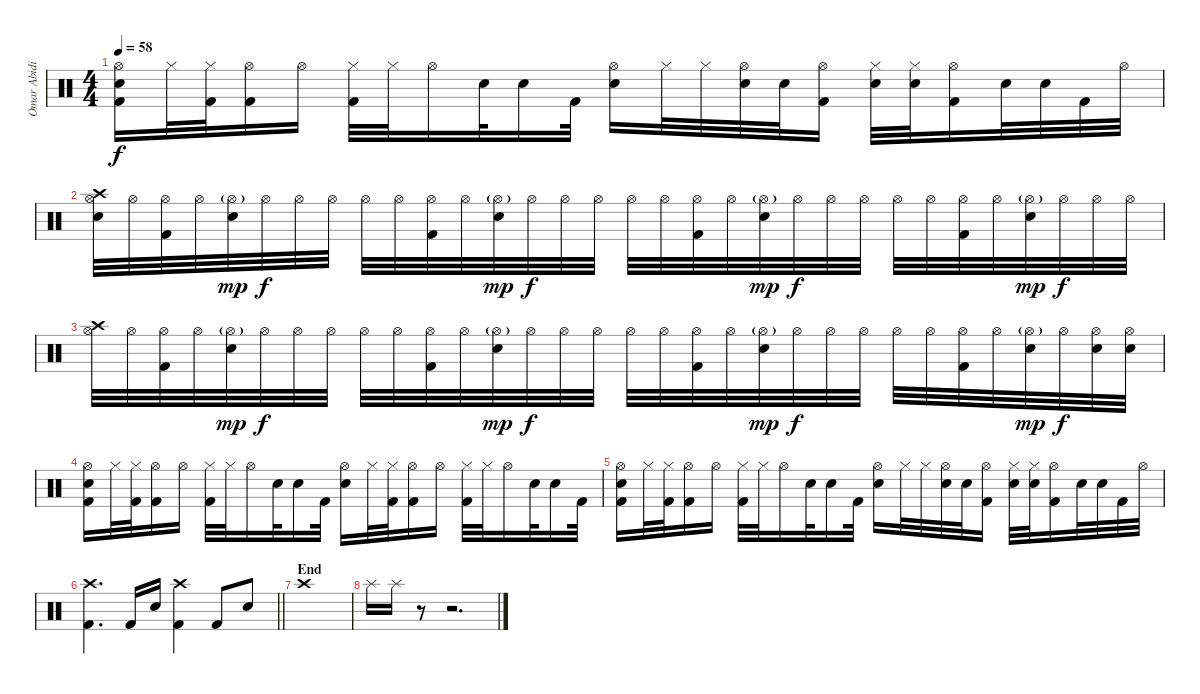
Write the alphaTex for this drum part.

\track ("Omar Abidi" "Omar Abidi") {instrument percussion}
\staff {score}
\articulation defaults
\ts (4 4)
\tempo 58
\clef neutral
\ks c
("Hi-Hat (open)" "Electric Snare (hit)" "Kick (hit) 2").16{dy f} "Hi-Hat (closed)".32 ("Hi-Hat (closed)" "Kick (hit) 2").32 ("Hi-Hat (open)" "Kick (hit) 2").16 "Hi-Hat (open)".16 ("Hi-Hat (closed)" "Kick (hit) 2").32 "Hi-Hat (closed)".32 "Hi-Hat (open)".16 "Electric Snare (hit)".32 "Electric Snare (hit)".16 "Kick (hit) 2".32 ("Hi-Hat (open)" "Electric Snare (hit)").16 "Hi-Hat (closed)".32 "Hi-Hat (closed)".32 ("Hi-Hat (open)" "Electric Snare (hit)").32 "Electric Snare (hit)".32 ("Hi-Hat (open)" "Kick (hit) 2").16 ("Hi-Hat (closed)" "Electric Snare (hit)").32 ("Hi-Hat (closed)" "Electric Snare (hit)").32 ("Hi-Hat (open)" "Kick (hit) 2").16 "Electric Snare (hit)".32 "Electric Snare (hit)".32 "Kick (hit) 2".32 "Hi-Hat (open)".32 |
("Crash high (hit)" "Electric Snare (hit)" "Hi-Hat (open)").32 "Hi-Hat (open)".32 ("Hi-Hat (open)" "Kick (hit) 2").32 "Hi-Hat (open)".32 ("Electric Snare (hit)" "Hi-Hat (open)"{g}).32{dy mp} "Hi-Hat (open)".32{dy f} "Hi-Hat (open)".32 "Hi-Hat (open)".32 "Hi-Hat (open)".32 "Hi-Hat (open)".32 ("Hi-Hat (open)" "Kick (hit) 2").32 "Hi-Hat (open)".32 ("Electric Snare (hit)" "Hi-Hat (open)"{g}).32{dy mp} "Hi-Hat (open)".32{dy f} "Hi-Hat (open)".32 "Hi-Hat (open)".32 "Hi-Hat (open)".32 "Hi-Hat (open)".32 ("Hi-Hat (open)" "Kick (hit) 2").32 "Hi-Hat (open)".32 ("Electric Snare (hit)" "Hi-Hat (open)"{g}).32{dy mp} "Hi-Hat (open)".32{dy f} "Hi-Hat (open)".32 "Hi-Hat (open)".32 "Hi-Hat (open)".32 "Hi-Hat (open)".32 ("Hi-Hat (open)" "Kick (hit) 2").32 "Hi-Hat (open)".32 ("Electric Snare (hit)" "Hi-Hat (open)"{g}).32{dy mp} "Hi-Hat (open)".32{dy f} "Hi-Hat (open)".32 "Hi-Hat (open)".32 |
("Crash high (hit)" "Hi-Hat (open)").32 "Hi-Hat (open)".32 ("Hi-Hat (open)" "Kick (hit) 2").32 "Hi-Hat (open)".32 ("Electric Snare (hit)" "Hi-Hat (open)"{g}).32{dy mp} "Hi-Hat (open)".32{dy f} "Hi-Hat (open)".32 "Hi-Hat (open)".32 "Hi-Hat (open)".32 "Hi-Hat (open)".32 ("Hi-Hat (open)" "Kick (hit) 2").32 "Hi-Hat (open)".32 ("Electric Snare (hit)" "Hi-Hat (open)"{g}).32{dy mp} "Hi-Hat (open)".32{dy f} "Hi-Hat (open)".32 "Hi-Hat (open)".32 "Hi-Hat (open)".32 "Hi-Hat (open)".32 ("Hi-Hat (open)" "Kick (hit) 2").32 "Hi-Hat (open)".32 ("Electric Snare (hit)" "Hi-Hat (open)"{g}).32{dy mp} "Hi-Hat (open)".32{dy f} "Hi-Hat (open)".32 "Hi-Hat (open)".32 "Hi-Hat (open)".32 "Hi-Hat (open)".32 ("Hi-Hat (open)" "Kick (hit) 2").32 "Hi-Hat (open)".32 ("Electric Snare (hit)" "Hi-Hat (open)"{g}).32{dy mp} "Hi-Hat (open)".32{dy f} ("Electric Snare (hit)" "Hi-Hat (open)").32 ("Electric Snare (hit)" "Hi-Hat (open)").32 |
("Hi-Hat (open)" "Electric Snare (hit)" "Kick (hit) 2").16 "Hi-Hat (closed)".32 ("Hi-Hat (closed)" "Kick (hit) 2").32 ("Hi-Hat (open)" "Kick (hit) 2").16 "Hi-Hat (open)".16 ("Hi-Hat (closed)" "Kick (hit) 2").32 "Hi-Hat (closed)".32 "Hi-Hat (open)".16 "Electric Snare (hit)".32 "Electric Snare (hit)".16 "Kick (hit) 2".32 ("Hi-Hat (open)" "Electric Snare (hit)").16 "Hi-Hat (closed)".32 ("Hi-Hat (closed)" "Kick (hit) 2").32 ("Hi-Hat (open)" "Kick (hit) 2").16 "Hi-Hat (open)".16 ("Hi-Hat (closed)" "Kick (hit) 2").32 "Hi-Hat (closed)".32 "Hi-Hat (open)".16 "Electric Snare (hit)".32 "Electric Snare (hit)".16 "Kick (hit) 2".32 |
("Hi-Hat (open)" "Electric Snare (hit)" "Kick (hit) 2").16 "Hi-Hat (closed)".32 ("Hi-Hat (closed)" "Kick (hit) 2").32 ("Hi-Hat (open)" "Kick (hit) 2").16 "Hi-Hat (open)".16 ("Hi-Hat (closed)" "Kick (hit) 2").32 "Hi-Hat (closed)".32 "Hi-Hat (open)".16 "Electric Snare (hit)".32 "Electric Snare (hit)".16 "Kick (hit) 2".32 ("Hi-Hat (open)" "Electric Snare (hit)").16 "Hi-Hat (closed)".32 "Hi-Hat (closed)".32 ("Hi-Hat (open)" "Electric Snare (hit)").32 "Electric Snare (hit)".32 ("Hi-Hat (open)" "Kick (hit) 2").16 ("Hi-Hat (closed)" "Electric Snare (hit)").32 ("Hi-Hat (closed)" "Electric Snare (hit)").32 ("Hi-Hat (open)" "Kick (hit) 2").16 "Electric Snare (hit)".32 "Electric Snare (hit)".32 "Kick (hit) 2".32 "Hi-Hat (open)".32 |
\barLineRight lightlight
("Crash high (hit)" "Kick (hit) 2").4{d} "Kick (hit) 2".16 "Electric Snare (hit)".16 ("Crash high (hit)" "Kick (hit) 2").4 "Kick (hit) 2".8 "Electric Snare (hit)".8 |
\section ("" "End")
"Crash high (hit)".1 |
"Splash (hit)".16 "Splash (hit)".16 r.8 r.2{d}
